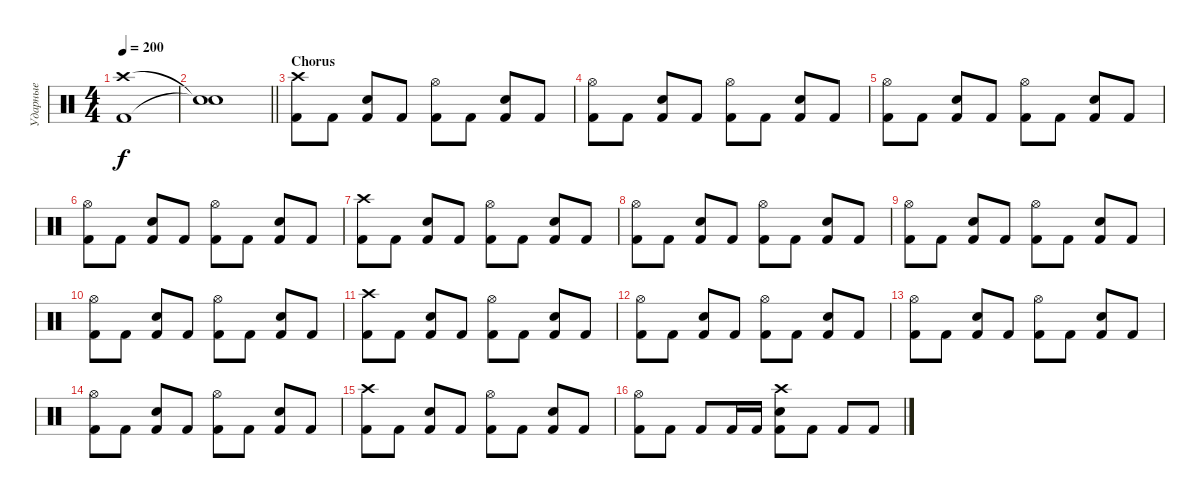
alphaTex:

\track ("Ударные" "Ударные") {instrument percussion}
\staff {score}
\articulation defaults
\ts (4 4)
\tempo 200
\clef neutral
\ks c
("Crash high (hit)" "Kick (hit) 2").1{dy f} |
\barLineRight lightlight
("Snare (hit)"{t} "Snare (hit)"{t}).1 |
\section ("" "Chorus")
("Crash high (hit)" "Kick (hit) 2").8 "Kick (hit) 2".8 ("Snare (hit) 2" "Kick (hit) 2").8 "Kick (hit) 2".8 ("Hi-Hat (open)" "Kick (hit) 2").8 "Kick (hit) 2".8 ("Snare (hit) 2" "Kick (hit) 2").8 "Kick (hit) 2".8 |
("Hi-Hat (open)" "Kick (hit) 2").8 "Kick (hit) 2".8 ("Snare (hit) 2" "Kick (hit) 2").8 "Kick (hit) 2".8 ("Hi-Hat (open)" "Kick (hit) 2").8 "Kick (hit) 2".8 ("Snare (hit) 2" "Kick (hit) 2").8 "Kick (hit) 2".8 |
("Hi-Hat (open)" "Kick (hit) 2").8 "Kick (hit) 2".8 ("Snare (hit) 2" "Kick (hit) 2").8 "Kick (hit) 2".8 ("Hi-Hat (open)" "Kick (hit) 2").8 "Kick (hit) 2".8 ("Snare (hit) 2" "Kick (hit) 2").8 "Kick (hit) 2".8 |
("Hi-Hat (open)" "Kick (hit) 2").8 "Kick (hit) 2".8 ("Snare (hit) 2" "Kick (hit) 2").8 "Kick (hit) 2".8 ("Hi-Hat (open)" "Kick (hit) 2").8 "Kick (hit) 2".8 ("Snare (hit) 2" "Kick (hit) 2").8 "Kick (hit) 2".8 |
("Crash high (hit)" "Kick (hit) 2").8 "Kick (hit) 2".8 ("Snare (hit) 2" "Kick (hit) 2").8 "Kick (hit) 2".8 ("Hi-Hat (open)" "Kick (hit) 2").8 "Kick (hit) 2".8 ("Snare (hit) 2" "Kick (hit) 2").8 "Kick (hit) 2".8 |
("Hi-Hat (open)" "Kick (hit) 2").8 "Kick (hit) 2".8 ("Snare (hit) 2" "Kick (hit) 2").8 "Kick (hit) 2".8 ("Hi-Hat (open)" "Kick (hit) 2").8 "Kick (hit) 2".8 ("Snare (hit) 2" "Kick (hit) 2").8 "Kick (hit) 2".8 |
("Hi-Hat (open)" "Kick (hit) 2").8 "Kick (hit) 2".8 ("Snare (hit) 2" "Kick (hit) 2").8 "Kick (hit) 2".8 ("Hi-Hat (open)" "Kick (hit) 2").8 "Kick (hit) 2".8 ("Snare (hit) 2" "Kick (hit) 2").8 "Kick (hit) 2".8 |
("Hi-Hat (open)" "Kick (hit) 2").8 "Kick (hit) 2".8 ("Snare (hit) 2" "Kick (hit) 2").8 "Kick (hit) 2".8 ("Hi-Hat (open)" "Kick (hit) 2").8 "Kick (hit) 2".8 ("Snare (hit) 2" "Kick (hit) 2").8 "Kick (hit) 2".8 |
("Crash high (hit)" "Kick (hit) 2").8 "Kick (hit) 2".8 ("Snare (hit) 2" "Kick (hit) 2").8 "Kick (hit) 2".8 ("Hi-Hat (open)" "Kick (hit) 2").8 "Kick (hit) 2".8 ("Snare (hit) 2" "Kick (hit) 2").8 "Kick (hit) 2".8 |
("Hi-Hat (open)" "Kick (hit) 2").8 "Kick (hit) 2".8 ("Snare (hit) 2" "Kick (hit) 2").8 "Kick (hit) 2".8 ("Hi-Hat (open)" "Kick (hit) 2").8 "Kick (hit) 2".8 ("Snare (hit) 2" "Kick (hit) 2").8 "Kick (hit) 2".8 |
("Hi-Hat (open)" "Kick (hit) 2").8 "Kick (hit) 2".8 ("Snare (hit) 2" "Kick (hit) 2").8 "Kick (hit) 2".8 ("Hi-Hat (open)" "Kick (hit) 2").8 "Kick (hit) 2".8 ("Snare (hit) 2" "Kick (hit) 2").8 "Kick (hit) 2".8 |
("Hi-Hat (open)" "Kick (hit) 2").8 "Kick (hit) 2".8 ("Snare (hit) 2" "Kick (hit) 2").8 "Kick (hit) 2".8 ("Hi-Hat (open)" "Kick (hit) 2").8 "Kick (hit) 2".8 ("Snare (hit) 2" "Kick (hit) 2").8 "Kick (hit) 2".8 |
("Crash high (hit)" "Kick (hit) 2").8 "Kick (hit) 2".8 ("Snare (hit) 2" "Kick (hit) 2").8 "Kick (hit) 2".8 ("Hi-Hat (open)" "Kick (hit) 2").8 "Kick (hit) 2".8 ("Snare (hit) 2" "Kick (hit) 2").8 "Kick (hit) 2".8 |
("Hi-Hat (open)" "Kick (hit) 2").8 "Kick (hit) 2".8 "Kick (hit) 2".8 "Kick (hit) 2".16 "Kick (hit) 2".16 ("Crash high (hit)" "Snare (hit) 2" "Kick (hit) 2").8 "Kick (hit) 2".8 "Kick (hit) 2".8 "Kick (hit) 2".8
